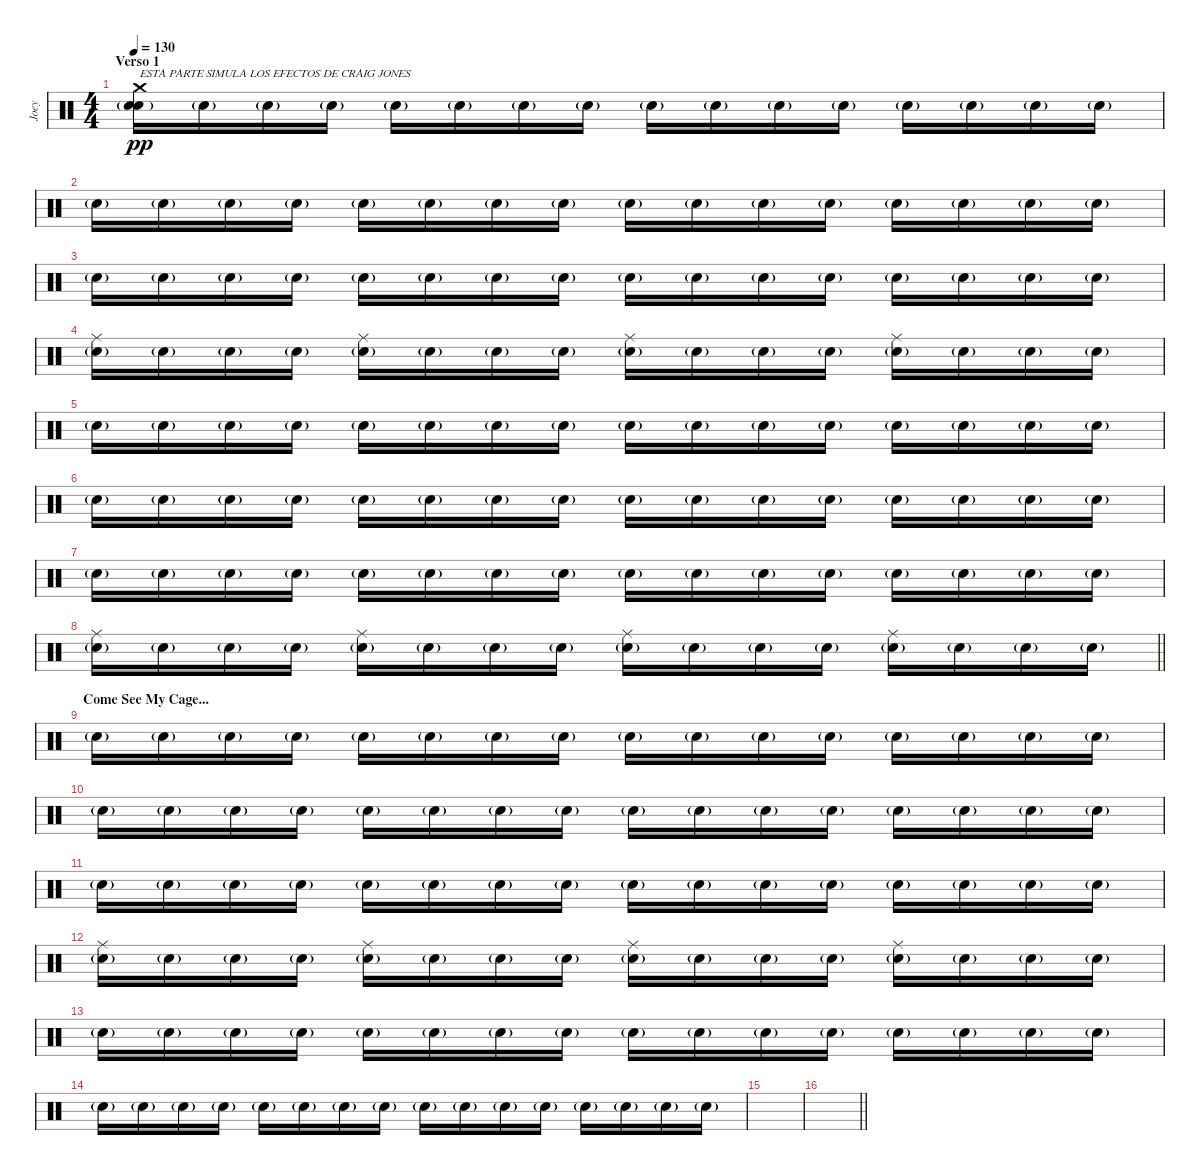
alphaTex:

\track ("Joey" "Joey") {instrument percussion}
\staff {score}
\articulation defaults
\ts (4 4)
\section ("" "Verso 1")
\tempo 130
\clef neutral
\ks c
("Crash medium (hit)" "Electric Snare (hit)" "Electric Snare (hit)"{g}).16{txt "ESTA PARTE SIMULA LOS EFECTOS DE CRAIG JONES" dy pp} "Electric Snare (hit)"{g}.16 "Electric Snare (hit)"{g}.16 "Electric Snare (hit)"{g}.16 "Electric Snare (hit)"{g}.16 "Electric Snare (hit)"{g}.16 "Electric Snare (hit)"{g}.16 "Electric Snare (hit)"{g}.16 "Electric Snare (hit)"{g}.16 "Electric Snare (hit)"{g}.16 "Electric Snare (hit)"{g}.16 "Electric Snare (hit)"{g}.16 "Electric Snare (hit)"{g}.16 "Electric Snare (hit)"{g}.16 "Electric Snare (hit)"{g}.16 "Electric Snare (hit)"{g}.16 |
"Electric Snare (hit)"{g}.16 "Electric Snare (hit)"{g}.16 "Electric Snare (hit)"{g}.16 "Electric Snare (hit)"{g}.16 "Electric Snare (hit)"{g}.16 "Electric Snare (hit)"{g}.16 "Electric Snare (hit)"{g}.16 "Electric Snare (hit)"{g}.16 "Electric Snare (hit)"{g}.16 "Electric Snare (hit)"{g}.16 "Electric Snare (hit)"{g}.16 "Electric Snare (hit)"{g}.16 "Electric Snare (hit)"{g}.16 "Electric Snare (hit)"{g}.16 "Electric Snare (hit)"{g}.16 "Electric Snare (hit)"{g}.16 |
"Electric Snare (hit)"{g}.16 "Electric Snare (hit)"{g}.16 "Electric Snare (hit)"{g}.16 "Electric Snare (hit)"{g}.16 "Electric Snare (hit)"{g}.16 "Electric Snare (hit)"{g}.16 "Electric Snare (hit)"{g}.16 "Electric Snare (hit)"{g}.16 "Electric Snare (hit)"{g}.16 "Electric Snare (hit)"{g}.16 "Electric Snare (hit)"{g}.16 "Electric Snare (hit)"{g}.16 "Electric Snare (hit)"{g}.16 "Electric Snare (hit)"{g}.16 "Electric Snare (hit)"{g}.16 "Electric Snare (hit)"{g}.16 |
("Ride (middle)" "Electric Snare (hit)"{g}).16 "Electric Snare (hit)"{g}.16 "Electric Snare (hit)"{g}.16 "Electric Snare (hit)"{g}.16 ("Ride (middle)" "Electric Snare (hit)"{g}).16 "Electric Snare (hit)"{g}.16 "Electric Snare (hit)"{g}.16 "Electric Snare (hit)"{g}.16 ("Ride (middle)" "Electric Snare (hit)"{g}).16 "Electric Snare (hit)"{g}.16 "Electric Snare (hit)"{g}.16 "Electric Snare (hit)"{g}.16 ("Ride (middle)" "Electric Snare (hit)"{g}).16 "Electric Snare (hit)"{g}.16 "Electric Snare (hit)"{g}.16 "Electric Snare (hit)"{g}.16 |
"Electric Snare (hit)"{g}.16 "Electric Snare (hit)"{g}.16 "Electric Snare (hit)"{g}.16 "Electric Snare (hit)"{g}.16 "Electric Snare (hit)"{g}.16 "Electric Snare (hit)"{g}.16 "Electric Snare (hit)"{g}.16 "Electric Snare (hit)"{g}.16 "Electric Snare (hit)"{g}.16 "Electric Snare (hit)"{g}.16 "Electric Snare (hit)"{g}.16 "Electric Snare (hit)"{g}.16 "Electric Snare (hit)"{g}.16 "Electric Snare (hit)"{g}.16 "Electric Snare (hit)"{g}.16 "Electric Snare (hit)"{g}.16 |
"Electric Snare (hit)"{g}.16 "Electric Snare (hit)"{g}.16 "Electric Snare (hit)"{g}.16 "Electric Snare (hit)"{g}.16 "Electric Snare (hit)"{g}.16 "Electric Snare (hit)"{g}.16 "Electric Snare (hit)"{g}.16 "Electric Snare (hit)"{g}.16 "Electric Snare (hit)"{g}.16 "Electric Snare (hit)"{g}.16 "Electric Snare (hit)"{g}.16 "Electric Snare (hit)"{g}.16 "Electric Snare (hit)"{g}.16 "Electric Snare (hit)"{g}.16 "Electric Snare (hit)"{g}.16 "Electric Snare (hit)"{g}.16 |
"Electric Snare (hit)"{g}.16 "Electric Snare (hit)"{g}.16 "Electric Snare (hit)"{g}.16 "Electric Snare (hit)"{g}.16 "Electric Snare (hit)"{g}.16 "Electric Snare (hit)"{g}.16 "Electric Snare (hit)"{g}.16 "Electric Snare (hit)"{g}.16 "Electric Snare (hit)"{g}.16 "Electric Snare (hit)"{g}.16 "Electric Snare (hit)"{g}.16 "Electric Snare (hit)"{g}.16 "Electric Snare (hit)"{g}.16 "Electric Snare (hit)"{g}.16 "Electric Snare (hit)"{g}.16 "Electric Snare (hit)"{g}.16 |
\barLineRight lightlight
("Ride (middle)" "Electric Snare (hit)"{g}).16 "Electric Snare (hit)"{g}.16 "Electric Snare (hit)"{g}.16 "Electric Snare (hit)"{g}.16 ("Ride (middle)" "Electric Snare (hit)"{g}).16 "Electric Snare (hit)"{g}.16 "Electric Snare (hit)"{g}.16 "Electric Snare (hit)"{g}.16 ("Ride (middle)" "Electric Snare (hit)"{g}).16 "Electric Snare (hit)"{g}.16 "Electric Snare (hit)"{g}.16 "Electric Snare (hit)"{g}.16 ("Ride (middle)" "Electric Snare (hit)"{g}).16 "Electric Snare (hit)"{g}.16 "Electric Snare (hit)"{g}.16 "Electric Snare (hit)"{g}.16 |
\section ("" "Come See My Cage...")
"Electric Snare (hit)"{g}.16 "Electric Snare (hit)"{g}.16 "Electric Snare (hit)"{g}.16 "Electric Snare (hit)"{g}.16 "Electric Snare (hit)"{g}.16 "Electric Snare (hit)"{g}.16 "Electric Snare (hit)"{g}.16 "Electric Snare (hit)"{g}.16 "Electric Snare (hit)"{g}.16 "Electric Snare (hit)"{g}.16 "Electric Snare (hit)"{g}.16 "Electric Snare (hit)"{g}.16 "Electric Snare (hit)"{g}.16 "Electric Snare (hit)"{g}.16 "Electric Snare (hit)"{g}.16 "Electric Snare (hit)"{g}.16 |
"Electric Snare (hit)"{g}.16 "Electric Snare (hit)"{g}.16 "Electric Snare (hit)"{g}.16 "Electric Snare (hit)"{g}.16 "Electric Snare (hit)"{g}.16 "Electric Snare (hit)"{g}.16 "Electric Snare (hit)"{g}.16 "Electric Snare (hit)"{g}.16 "Electric Snare (hit)"{g}.16 "Electric Snare (hit)"{g}.16 "Electric Snare (hit)"{g}.16 "Electric Snare (hit)"{g}.16 "Electric Snare (hit)"{g}.16 "Electric Snare (hit)"{g}.16 "Electric Snare (hit)"{g}.16 "Electric Snare (hit)"{g}.16 |
"Electric Snare (hit)"{g}.16 "Electric Snare (hit)"{g}.16 "Electric Snare (hit)"{g}.16 "Electric Snare (hit)"{g}.16 "Electric Snare (hit)"{g}.16 "Electric Snare (hit)"{g}.16 "Electric Snare (hit)"{g}.16 "Electric Snare (hit)"{g}.16 "Electric Snare (hit)"{g}.16 "Electric Snare (hit)"{g}.16 "Electric Snare (hit)"{g}.16 "Electric Snare (hit)"{g}.16 "Electric Snare (hit)"{g}.16 "Electric Snare (hit)"{g}.16 "Electric Snare (hit)"{g}.16 "Electric Snare (hit)"{g}.16 |
("Ride (middle)" "Electric Snare (hit)"{g}).16 "Electric Snare (hit)"{g}.16 "Electric Snare (hit)"{g}.16 "Electric Snare (hit)"{g}.16 ("Ride (middle)" "Electric Snare (hit)"{g}).16 "Electric Snare (hit)"{g}.16 "Electric Snare (hit)"{g}.16 "Electric Snare (hit)"{g}.16 ("Ride (middle)" "Electric Snare (hit)"{g}).16 "Electric Snare (hit)"{g}.16 "Electric Snare (hit)"{g}.16 "Electric Snare (hit)"{g}.16 ("Ride (middle)" "Electric Snare (hit)"{g}).16 "Electric Snare (hit)"{g}.16 "Electric Snare (hit)"{g}.16 "Electric Snare (hit)"{g}.16 |
"Electric Snare (hit)"{g}.16 "Electric Snare (hit)"{g}.16 "Electric Snare (hit)"{g}.16 "Electric Snare (hit)"{g}.16 "Electric Snare (hit)"{g}.16 "Electric Snare (hit)"{g}.16 "Electric Snare (hit)"{g}.16 "Electric Snare (hit)"{g}.16 "Electric Snare (hit)"{g}.16 "Electric Snare (hit)"{g}.16 "Electric Snare (hit)"{g}.16 "Electric Snare (hit)"{g}.16 "Electric Snare (hit)"{g}.16 "Electric Snare (hit)"{g}.16 "Electric Snare (hit)"{g}.16 "Electric Snare (hit)"{g}.16 |
"Electric Snare (hit)"{g}.16 "Electric Snare (hit)"{g}.16 "Electric Snare (hit)"{g}.16 "Electric Snare (hit)"{g}.16 "Electric Snare (hit)"{g}.16 "Electric Snare (hit)"{g}.16 "Electric Snare (hit)"{g}.16 "Electric Snare (hit)"{g}.16 "Electric Snare (hit)"{g}.16 "Electric Snare (hit)"{g}.16 "Electric Snare (hit)"{g}.16 "Electric Snare (hit)"{g}.16 "Electric Snare (hit)"{g}.16 "Electric Snare (hit)"{g}.16 "Electric Snare (hit)"{g}.16 "Electric Snare (hit)"{g}.16 |
|
\barLineRight lightlight
